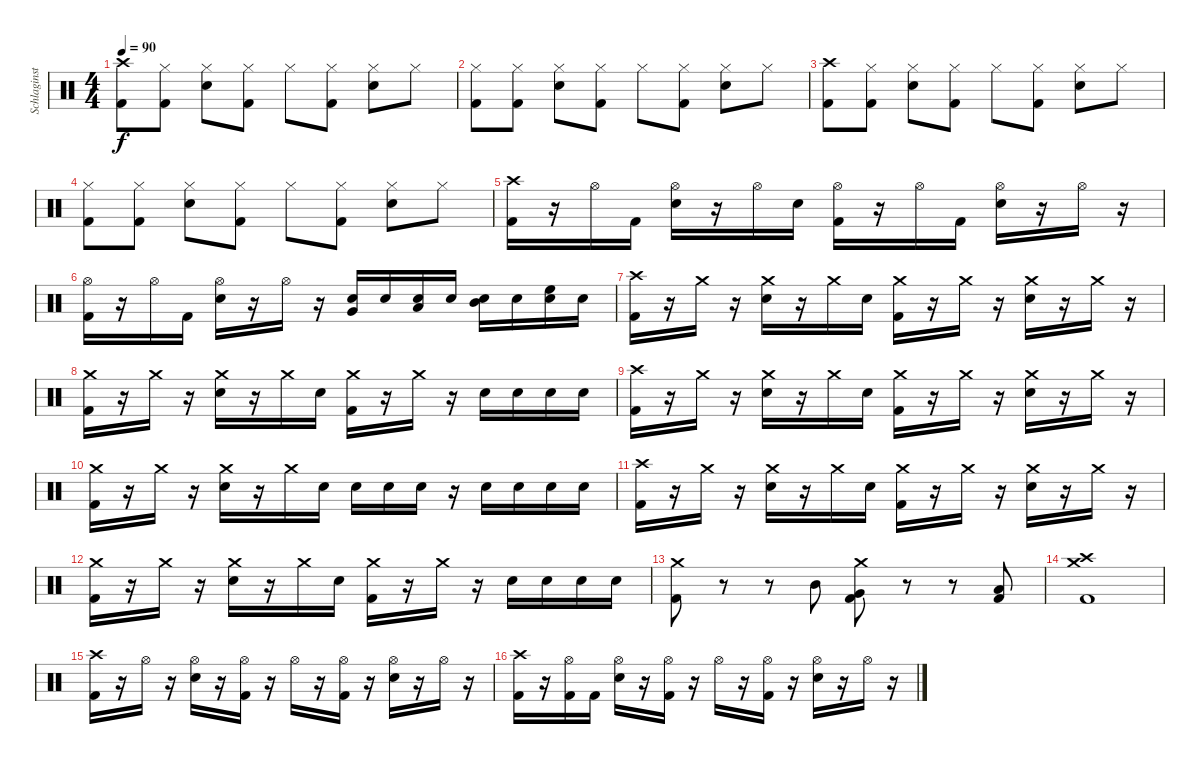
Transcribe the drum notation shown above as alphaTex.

\track ("Schlaginstrumente - Auswahl" "Schlaginst") {instrument percussion}
\staff {score}
\articulation defaults
\ts (4 4)
\tempo 90
\clef neutral
\ks c
("Crash high (hit)" "Kick (hit) 2").8{dy f} ("Hi-Hat (closed)" "Kick (hit) 2").8 ("Hi-Hat (closed)" "Snare (hit) 2").8 ("Hi-Hat (closed)" "Kick (hit) 2").8 "Hi-Hat (closed)".8 ("Hi-Hat (closed)" "Kick (hit) 2").8 ("Hi-Hat (closed)" "Snare (hit) 2").8 "Hi-Hat (closed)".8 |
("Hi-Hat (closed)" "Kick (hit) 2").8 ("Hi-Hat (closed)" "Kick (hit) 2").8 ("Hi-Hat (closed)" "Snare (hit) 2").8 ("Hi-Hat (closed)" "Kick (hit) 2").8 "Hi-Hat (closed)".8 ("Hi-Hat (closed)" "Kick (hit) 2").8 ("Hi-Hat (closed)" "Snare (hit) 2").8 "Hi-Hat (closed)".8 |
("Crash high (hit)" "Kick (hit) 2").8 ("Hi-Hat (closed)" "Kick (hit) 2").8 ("Hi-Hat (closed)" "Snare (hit) 2").8 ("Hi-Hat (closed)" "Kick (hit) 2").8 "Hi-Hat (closed)".8 ("Hi-Hat (closed)" "Kick (hit) 2").8 ("Hi-Hat (closed)" "Snare (hit) 2").8 "Hi-Hat (closed)".8 |
("Hi-Hat (closed)" "Kick (hit) 2").8 ("Hi-Hat (closed)" "Kick (hit) 2").8 ("Hi-Hat (closed)" "Snare (hit) 2").8 ("Hi-Hat (closed)" "Kick (hit) 2").8 "Hi-Hat (closed)".8 ("Hi-Hat (closed)" "Kick (hit) 2").8 ("Hi-Hat (closed)" "Snare (hit) 2").8 "Hi-Hat (closed)".8 |
("Crash high (hit)" "Kick (hit) 2").16 r.16 "Hi-Hat (open)".16 "Kick (hit) 2".16 ("Hi-Hat (open)" "Snare (hit) 2").16 r.16 "Hi-Hat (open)".16 "Snare (hit) 2".16 ("Hi-Hat (open)" "Kick (hit) 2").16 r.16 "Hi-Hat (open)".16 "Kick (hit) 2".16 ("Hi-Hat (open)" "Snare (hit) 2").16 r.16 "Hi-Hat (open)".16 r.16 |
("Hi-Hat (open)" "Kick (hit) 2").16 r.16 "Hi-Hat (open)".16 "Kick (hit) 2".16 ("Hi-Hat (open)" "Snare (hit) 2").16 r.16 "Hi-Hat (open)".16 r.16 ("Very Low Tom (hit)" "Snare (hit) 2").16 "Snare (hit) 2".16 ("Low Tom (hit)" "Snare (hit) 2").16 "Snare (hit) 2".16 ("Mid Tom (hit)" "Snare (hit) 2").16 "Snare (hit) 2".16 ("High Floor Tom (hit)" "Snare (hit) 2").16 "Snare (hit) 2".16 |
("Crash high (hit)" "Kick (hit) 2").16 r.16 "Crash medium (hit)".16 r.16 ("Crash medium (hit)" "Snare (hit) 2").16 r.16 "Crash medium (hit)".16 "Snare (hit) 2".16 ("Crash medium (hit)" "Kick (hit) 2").16 r.16 "Crash medium (hit)".16 r.16 ("Crash medium (hit)" "Snare (hit) 2").16 r.16 "Crash medium (hit)".16 r.16 |
("Crash medium (hit)" "Kick (hit) 2").16 r.16 "Crash medium (hit)".16 r.16 ("Crash medium (hit)" "Snare (hit) 2").16 r.16 "Crash medium (hit)".16 "Snare (hit) 2".16 ("Crash medium (hit)" "Kick (hit) 2").16 r.16 "Crash medium (hit)".16 r.16 "Snare (hit) 2".16 "Snare (hit) 2".16 "Snare (hit) 2".16 "Snare (hit) 2".16 |
("Crash high (hit)" "Kick (hit) 2").16 r.16 "Crash medium (hit)".16 r.16 ("Crash medium (hit)" "Snare (hit) 2").16 r.16 "Crash medium (hit)".16 "Snare (hit) 2".16 ("Crash medium (hit)" "Kick (hit) 2").16 r.16 "Crash medium (hit)".16 r.16 ("Crash medium (hit)" "Snare (hit) 2").16 r.16 "Crash medium (hit)".16 r.16 |
("Crash medium (hit)" "Kick (hit) 2").16 r.16 "Crash medium (hit)".16 r.16 ("Crash medium (hit)" "Snare (hit) 2").16 r.16 "Crash medium (hit)".16 "Snare (hit) 2".16 "Snare (hit) 2".16 "Snare (hit) 2".16 "Snare (hit) 2".16 r.16 "Snare (hit) 2".16 "Snare (hit) 2".16 "Snare (hit) 2".16 "Snare (hit) 2".16 |
("Crash high (hit)" "Kick (hit) 2").16 r.16 "Crash medium (hit)".16 r.16 ("Crash medium (hit)" "Snare (hit) 2").16 r.16 "Crash medium (hit)".16 "Snare (hit) 2".16 ("Crash medium (hit)" "Kick (hit) 2").16 r.16 "Crash medium (hit)".16 r.16 ("Crash medium (hit)" "Snare (hit) 2").16 r.16 "Crash medium (hit)".16 r.16 |
("Crash medium (hit)" "Kick (hit) 2").16 r.16 "Crash medium (hit)".16 r.16 ("Crash medium (hit)" "Snare (hit) 2").16 r.16 "Crash medium (hit)".16 "Snare (hit) 2".16 ("Crash medium (hit)" "Kick (hit) 2").16 r.16 "Crash medium (hit)".16 r.16 "Snare (hit) 2".16 "Snare (hit) 2".16 "Snare (hit) 2".16 "Snare (hit) 2".16 |
("Crash medium (hit)" "Kick (hit) 2").8 r.8 r.8 "Mid Tom (hit)".8 ("Crash medium (hit)" "Very Low Tom (hit)" "Kick (hit) 2").8 r.8 r.8 ("Low Floor Tom (hit)" "Kick (hit) 2").8 |
("Crash high (hit)" "Crash medium (hit)" "Kick (hit) 2").1 |
("Crash high (hit)" "Kick (hit) 2").16 r.16 "Hi-Hat (open)".16 r.16 ("Hi-Hat (open)" "Snare (hit) 2").16 r.16 ("Hi-Hat (open)" "Kick (hit) 2").16 r.16 "Hi-Hat (open)".16 r.16 ("Hi-Hat (open)" "Kick (hit) 2").16 r.16 ("Hi-Hat (open)" "Snare (hit) 2").16 r.16 "Hi-Hat (open)".16 r.16 |
("Crash high (hit)" "Kick (hit) 2").16 r.16 ("Hi-Hat (open)" "Kick (hit) 2").16 "Kick (hit) 2".16 ("Hi-Hat (open)" "Snare (hit) 2").16 r.16 ("Hi-Hat (open)" "Kick (hit) 2").16 r.16 "Hi-Hat (open)".16 r.16 ("Hi-Hat (open)" "Kick (hit) 2").16 r.16 ("Hi-Hat (open)" "Snare (hit) 2").16 r.16 "Hi-Hat (open)".16 r.16
